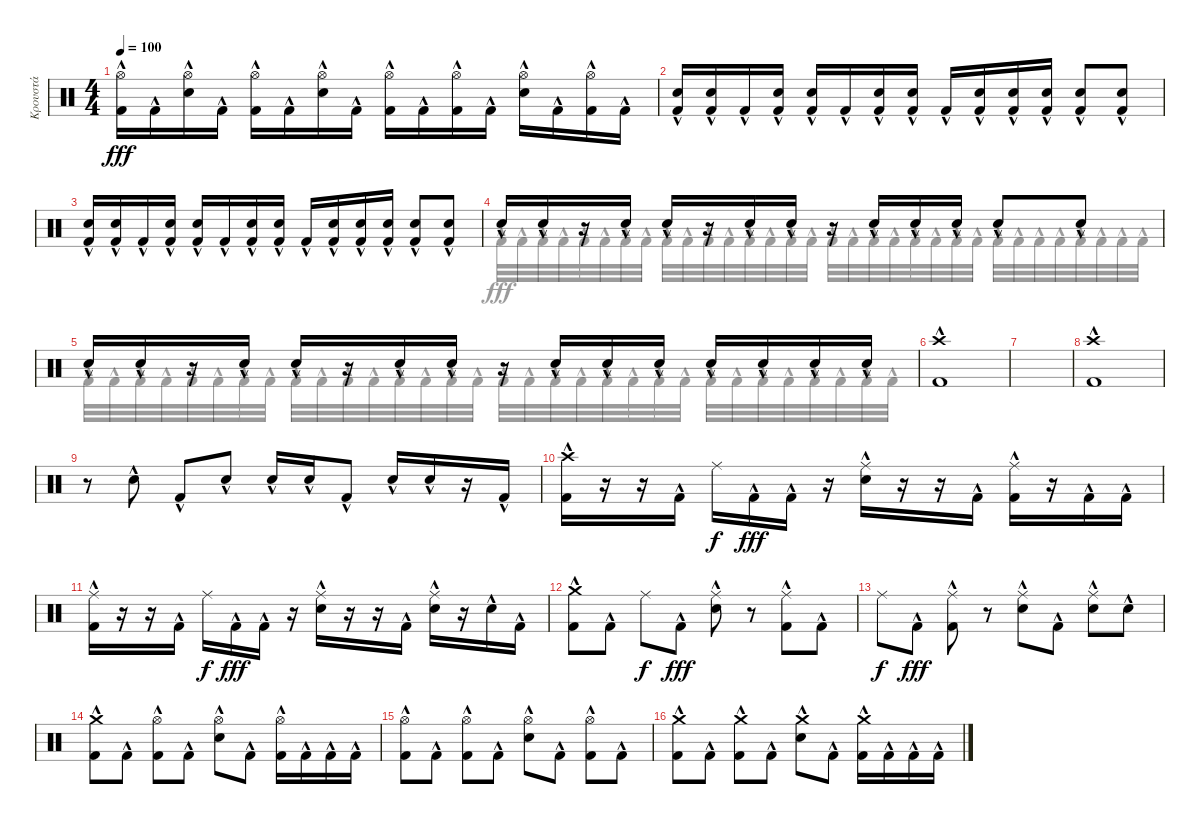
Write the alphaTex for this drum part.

\track ("Κρουστά" "Κρουστά") {instrument percussion}
\staff {score}
\articulation defaults
\voice
\ts (4 4)
\tempo 100
\clef neutral
\ks c
("Kick (hit) 2"{hac} "Hi-Hat (open)").16{dy fff} "Kick (hit) 2"{hac}.16 ("Electric Snare (hit)"{hac} "Hi-Hat (open)").16 "Kick (hit) 2"{hac}.16 ("Kick (hit) 2"{hac} "Hi-Hat (open)").16 "Kick (hit) 2"{hac}.16 ("Electric Snare (hit)"{hac} "Hi-Hat (open)").16 "Kick (hit) 2"{hac}.16 ("Kick (hit) 2"{hac} "Hi-Hat (open)").16 "Kick (hit) 2"{hac}.16 ("Kick (hit) 2"{hac} "Hi-Hat (open)").16 "Kick (hit) 2"{hac}.16 ("Electric Snare (hit)"{hac} "Hi-Hat (open)").16 "Kick (hit) 2"{hac}.16 ("Kick (hit) 2"{hac} "Hi-Hat (open)").16 "Kick (hit) 2"{hac}.16 |
("Electric Snare (hit)"{hac} "Kick (hit) 2"{hac}).16 ("Electric Snare (hit)"{hac} "Kick (hit) 2"{hac}).16 "Kick (hit) 2"{hac}.16 ("Electric Snare (hit)"{hac} "Kick (hit) 2"{hac}).16 ("Electric Snare (hit)"{hac} "Kick (hit) 2"{hac}).16 "Kick (hit) 2"{hac}.16 ("Electric Snare (hit)"{hac} "Kick (hit) 2"{hac}).16 ("Electric Snare (hit)"{hac} "Kick (hit) 2"{hac}).16 "Kick (hit) 2"{hac}.16 ("Electric Snare (hit)"{hac} "Kick (hit) 2"{hac}).16 ("Electric Snare (hit)"{hac} "Kick (hit) 2"{hac}).16 ("Electric Snare (hit)"{hac} "Kick (hit) 2"{hac}).16 ("Electric Snare (hit)"{hac} "Kick (hit) 2"{hac}).8 ("Electric Snare (hit)"{hac} "Kick (hit) 2"{hac}).8 |
("Electric Snare (hit)"{hac} "Kick (hit) 2"{hac}).16 ("Electric Snare (hit)"{hac} "Kick (hit) 2"{hac}).16 "Kick (hit) 2"{hac}.16 ("Electric Snare (hit)"{hac} "Kick (hit) 2"{hac}).16 ("Electric Snare (hit)"{hac} "Kick (hit) 2"{hac}).16 "Kick (hit) 2"{hac}.16 ("Electric Snare (hit)"{hac} "Kick (hit) 2"{hac}).16 ("Electric Snare (hit)"{hac} "Kick (hit) 2"{hac}).16 "Kick (hit) 2"{hac}.16 ("Electric Snare (hit)"{hac} "Kick (hit) 2"{hac}).16 ("Electric Snare (hit)"{hac} "Kick (hit) 2"{hac}).16 ("Electric Snare (hit)"{hac} "Kick (hit) 2"{hac}).16 ("Electric Snare (hit)"{hac} "Kick (hit) 2"{hac}).8 ("Electric Snare (hit)"{hac} "Kick (hit) 2"{hac}).8 |
"Electric Snare (hit)"{hac}.16 "Electric Snare (hit)"{hac}.16 r.16 "Electric Snare (hit)"{hac}.16 "Electric Snare (hit)"{hac}.16 r.16 "Electric Snare (hit)"{hac}.16 "Electric Snare (hit)"{hac}.16 r.16 "Electric Snare (hit)"{hac}.16 "Electric Snare (hit)"{hac}.16 "Electric Snare (hit)"{hac}.16 "Electric Snare (hit)"{hac}.8 "Electric Snare (hit)"{hac}.8 |
"Electric Snare (hit)"{hac}.16 "Electric Snare (hit)"{hac}.16 r.16 "Electric Snare (hit)"{hac}.16 "Electric Snare (hit)"{hac}.16 r.16 "Electric Snare (hit)"{hac}.16 "Electric Snare (hit)"{hac}.16 r.16 "Electric Snare (hit)"{hac}.16 "Electric Snare (hit)"{hac}.16 "Electric Snare (hit)"{hac}.16 "Electric Snare (hit)"{hac}.16 "Electric Snare (hit)"{hac}.16 "Electric Snare (hit)"{hac}.16 "Electric Snare (hit)"{hac}.16 |
("Kick (hit) 2"{hac} "Crash high (hit)").1 |
|
("Kick (hit) 2"{hac} "Crash high (hit)").1 |
r.8 "Electric Snare (hit)"{hac}.8 "Kick (hit) 2"{hac}.8 "Electric Snare (hit)"{hac}.8 "Electric Snare (hit)"{hac}.16 "Electric Snare (hit)"{hac}.16 "Kick (hit) 2"{hac}.8 "Electric Snare (hit)"{hac}.16 "Electric Snare (hit)"{hac}.16 r.16 "Kick (hit) 2"{hac}.16 |
("Kick (hit) 2"{hac} "Crash high (hit)").16 r.16 r.16 "Kick (hit) 2"{hac}.16 "Ride (middle)".16{dy f} "Kick (hit) 2"{hac}.16{dy fff} "Kick (hit) 2"{hac}.16 r.16 ("Electric Snare (hit)"{hac} "Ride (middle)").16 r.16 r.16 "Kick (hit) 2"{hac}.16 ("Kick (hit) 2"{hac} "Ride (middle)").16 r.16 "Kick (hit) 2"{hac}.16 "Kick (hit) 2"{hac}.16 |
("Kick (hit) 2"{hac} "Ride (middle)").16 r.16 r.16 "Kick (hit) 2"{hac}.16 "Ride (middle)".16{dy f} "Kick (hit) 2"{hac}.16{dy fff} "Kick (hit) 2"{hac}.16 r.16 ("Electric Snare (hit)"{hac} "Ride (middle)").16 r.16 r.16 "Kick (hit) 2"{hac}.16 ("Electric Snare (hit)"{hac} "Ride (middle)").16 r.16 "Electric Snare (hit)"{hac}.16 "Kick (hit) 2"{hac}.16 |
("Kick (hit) 2"{hac} "Crash medium (hit)").8 "Kick (hit) 2"{hac}.8 "Ride (middle)".8{dy f} "Kick (hit) 2"{hac}.8{dy fff} ("Electric Snare (hit)"{hac} "Ride (middle)").8 r.8 ("Kick (hit) 2"{hac} "Ride (middle)").8 "Kick (hit) 2"{hac}.8 |
"Ride (middle)".8{dy f} "Kick (hit) 2"{hac}.8{dy fff} ("Kick (hit) 2"{hac} "Ride (middle)").8 r.8 ("Electric Snare (hit)"{hac} "Ride (middle)").8 "Kick (hit) 2"{hac}.8 ("Electric Snare (hit)"{hac} "Ride (middle)").8 "Electric Snare (hit)"{hac}.8 |
("Kick (hit) 2"{hac} "Crash medium (hit)").8 "Kick (hit) 2"{hac}.8 ("Kick (hit) 2"{hac} "Hi-Hat (open)").8 "Kick (hit) 2"{hac}.8 ("Electric Snare (hit)"{hac} "Hi-Hat (open)").8 "Kick (hit) 2"{hac}.8 ("Kick (hit) 2"{hac} "Hi-Hat (open)").16 "Kick (hit) 2"{hac}.16 "Kick (hit) 2"{hac}.16 "Kick (hit) 2"{hac}.16 |
("Kick (hit) 2"{hac} "Hi-Hat (open)").8 "Kick (hit) 2"{hac}.8 ("Kick (hit) 2"{hac} "Hi-Hat (open)").8 "Kick (hit) 2"{hac}.8 ("Electric Snare (hit)"{hac} "Hi-Hat (open)").8 "Kick (hit) 2"{hac}.8 ("Kick (hit) 2"{hac} "Hi-Hat (open)").8 "Kick (hit) 2"{hac}.8 |
("Kick (hit) 2"{hac} "Crash medium (hit)").8 "Kick (hit) 2"{hac}.8 ("Kick (hit) 2"{hac} "Crash medium (hit)").8 "Kick (hit) 2"{hac}.8 ("Electric Snare (hit)"{hac} "Crash medium (hit)").8 "Kick (hit) 2"{hac}.8 ("Kick (hit) 2"{hac} "Crash medium (hit)").16 "Kick (hit) 2"{hac}.16 "Kick (hit) 2"{hac}.16 "Kick (hit) 2"{hac}.16
\voice
\clef neutral
\ottava regular
\simile none
\ks c
|
|
|
"Kick (hit) 2"{hac}.32 "Kick (hit) 2"{hac}.32 "Kick (hit) 2"{hac}.32 "Kick (hit) 2"{hac}.32 "Kick (hit) 2"{hac}.32 "Kick (hit) 2"{hac}.32 "Kick (hit) 2"{hac}.32 "Kick (hit) 2"{hac}.32 "Kick (hit) 2"{hac}.32 "Kick (hit) 2"{hac}.32 "Kick (hit) 2"{hac}.32 "Kick (hit) 2"{hac}.32 "Kick (hit) 2"{hac}.32 "Kick (hit) 2"{hac}.32 "Kick (hit) 2"{hac}.32 "Kick (hit) 2"{hac}.32 "Kick (hit) 2"{hac}.32 "Kick (hit) 2"{hac}.32 "Kick (hit) 2"{hac}.32 "Kick (hit) 2"{hac}.32 "Kick (hit) 2"{hac}.32 "Kick (hit) 2"{hac}.32 "Kick (hit) 2"{hac}.32 "Kick (hit) 2"{hac}.32 "Kick (hit) 2"{hac}.32 "Kick (hit) 2"{hac}.32 "Kick (hit) 2"{hac}.32 "Kick (hit) 2"{hac}.32 "Kick (hit) 2"{hac}.32 "Kick (hit) 2"{hac}.32 "Kick (hit) 2"{hac}.32 "Kick (hit) 2"{hac}.32 |
"Kick (hit) 2"{hac}.32 "Kick (hit) 2"{hac}.32 "Kick (hit) 2"{hac}.32 "Kick (hit) 2"{hac}.32 "Kick (hit) 2"{hac}.32 "Kick (hit) 2"{hac}.32 "Kick (hit) 2"{hac}.32 "Kick (hit) 2"{hac}.32 "Kick (hit) 2"{hac}.32 "Kick (hit) 2"{hac}.32 "Kick (hit) 2"{hac}.32 "Kick (hit) 2"{hac}.32 "Kick (hit) 2"{hac}.32 "Kick (hit) 2"{hac}.32 "Kick (hit) 2"{hac}.32 "Kick (hit) 2"{hac}.32 "Kick (hit) 2"{hac}.32 "Kick (hit) 2"{hac}.32 "Kick (hit) 2"{hac}.32 "Kick (hit) 2"{hac}.32 "Kick (hit) 2"{hac}.32 "Kick (hit) 2"{hac}.32 "Kick (hit) 2"{hac}.32 "Kick (hit) 2"{hac}.32 "Kick (hit) 2"{hac}.32 "Kick (hit) 2"{hac}.32 "Kick (hit) 2"{hac}.32 "Kick (hit) 2"{hac}.32 "Kick (hit) 2"{hac}.32 "Kick (hit) 2"{hac}.32 "Kick (hit) 2"{hac}.32 "Kick (hit) 2"{hac}.32 |
|
|
|
|
|
|
|
|
|
|
